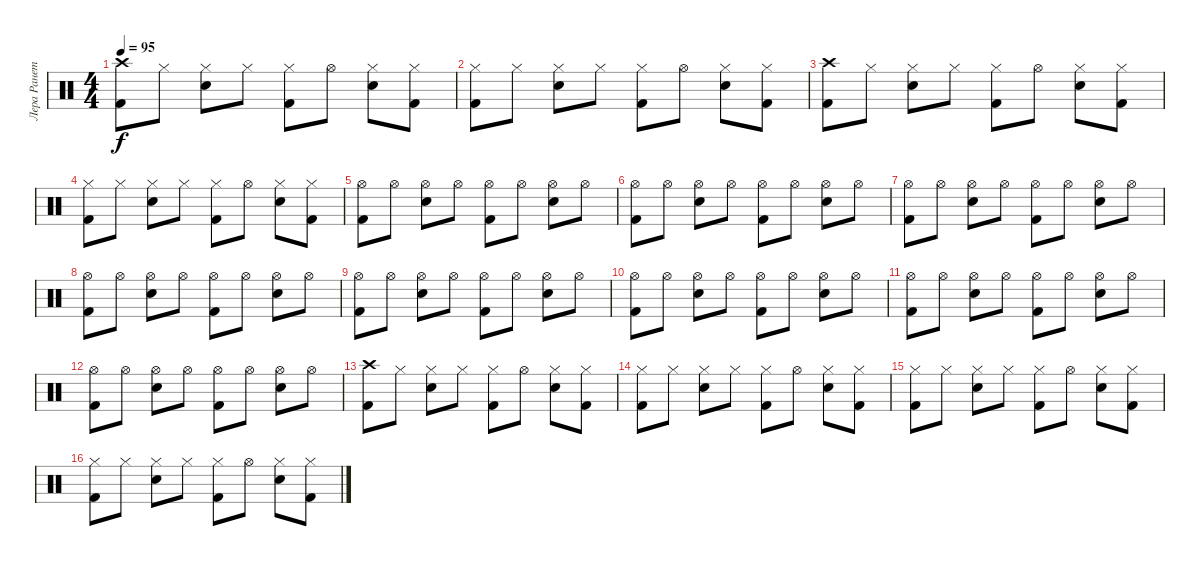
\track ("Лера Ранетка" "Лера Ранет") {instrument percussion}
\staff {score}
\articulation defaults
\ts (4 4)
\tempo 95
\clef neutral
\ks c
("Crash high (hit)" "Kick (hit) 2").8{dy f} "Hi-Hat (closed)".8 ("Hi-Hat (closed)" "Electric Snare (hit)").8 "Hi-Hat (closed)".8 ("Hi-Hat (closed)" "Kick (hit) 2").8 "Hi-Hat (open)".8 ("Hi-Hat (closed)" "Electric Snare (hit)").8 ("Hi-Hat (closed)" "Kick (hit) 2").8 |
("Hi-Hat (closed)" "Kick (hit) 2").8 "Hi-Hat (closed)".8 ("Hi-Hat (closed)" "Electric Snare (hit)").8 "Hi-Hat (closed)".8 ("Hi-Hat (closed)" "Kick (hit) 2").8 "Hi-Hat (open)".8 ("Hi-Hat (closed)" "Electric Snare (hit)").8 ("Hi-Hat (closed)" "Kick (hit) 2").8 |
("Crash high (hit)" "Kick (hit) 2").8 "Hi-Hat (closed)".8 ("Hi-Hat (closed)" "Electric Snare (hit)").8 "Hi-Hat (closed)".8 ("Hi-Hat (closed)" "Kick (hit) 2").8 "Hi-Hat (open)".8 ("Hi-Hat (closed)" "Electric Snare (hit)").8 ("Hi-Hat (closed)" "Kick (hit) 2").8 |
("Hi-Hat (closed)" "Kick (hit) 2").8 "Hi-Hat (closed)".8 ("Hi-Hat (closed)" "Electric Snare (hit)").8 "Hi-Hat (closed)".8 ("Hi-Hat (closed)" "Kick (hit) 2").8 "Hi-Hat (open)".8 ("Hi-Hat (closed)" "Electric Snare (hit)").8 ("Hi-Hat (closed)" "Kick (hit) 2").8 |
("Hi-Hat (open)" "Kick (hit) 2").8 "Hi-Hat (open)".8 ("Hi-Hat (open)" "Electric Snare (hit)").8 "Hi-Hat (open)".8 ("Hi-Hat (open)" "Kick (hit) 2").8 "Hi-Hat (open)".8 ("Hi-Hat (open)" "Electric Snare (hit)").8 "Hi-Hat (open)".8 |
("Hi-Hat (open)" "Kick (hit) 2").8 "Hi-Hat (open)".8 ("Hi-Hat (open)" "Electric Snare (hit)").8 "Hi-Hat (open)".8 ("Hi-Hat (open)" "Kick (hit) 2").8 "Hi-Hat (open)".8 ("Hi-Hat (open)" "Electric Snare (hit)").8 "Hi-Hat (open)".8 |
("Hi-Hat (open)" "Kick (hit) 2").8 "Hi-Hat (open)".8 ("Hi-Hat (open)" "Electric Snare (hit)").8 "Hi-Hat (open)".8 ("Hi-Hat (open)" "Kick (hit) 2").8 "Hi-Hat (open)".8 ("Hi-Hat (open)" "Electric Snare (hit)").8 "Hi-Hat (open)".8 |
("Hi-Hat (open)" "Kick (hit) 2").8 "Hi-Hat (open)".8 ("Hi-Hat (open)" "Electric Snare (hit)").8 "Hi-Hat (open)".8 ("Hi-Hat (open)" "Kick (hit) 2").8 "Hi-Hat (open)".8 ("Hi-Hat (open)" "Electric Snare (hit)").8 "Hi-Hat (open)".8 |
("Hi-Hat (open)" "Kick (hit) 2").8 "Hi-Hat (open)".8 ("Hi-Hat (open)" "Electric Snare (hit)").8 "Hi-Hat (open)".8 ("Hi-Hat (open)" "Kick (hit) 2").8 "Hi-Hat (open)".8 ("Hi-Hat (open)" "Electric Snare (hit)").8 "Hi-Hat (open)".8 |
("Hi-Hat (open)" "Kick (hit) 2").8 "Hi-Hat (open)".8 ("Hi-Hat (open)" "Electric Snare (hit)").8 "Hi-Hat (open)".8 ("Hi-Hat (open)" "Kick (hit) 2").8 "Hi-Hat (open)".8 ("Hi-Hat (open)" "Electric Snare (hit)").8 "Hi-Hat (open)".8 |
("Hi-Hat (open)" "Kick (hit) 2").8 "Hi-Hat (open)".8 ("Hi-Hat (open)" "Electric Snare (hit)").8 "Hi-Hat (open)".8 ("Hi-Hat (open)" "Kick (hit) 2").8 "Hi-Hat (open)".8 ("Hi-Hat (open)" "Electric Snare (hit)").8 "Hi-Hat (open)".8 |
("Hi-Hat (open)" "Kick (hit) 2").8 "Hi-Hat (open)".8 ("Hi-Hat (open)" "Electric Snare (hit)").8 "Hi-Hat (open)".8 ("Hi-Hat (open)" "Kick (hit) 2").8 "Hi-Hat (open)".8 ("Hi-Hat (open)" "Electric Snare (hit)").8 "Hi-Hat (open)".8 |
("Crash high (hit)" "Kick (hit) 2").8 "Hi-Hat (closed)".8 ("Hi-Hat (closed)" "Electric Snare (hit)").8 "Hi-Hat (closed)".8 ("Hi-Hat (closed)" "Kick (hit) 2").8 "Hi-Hat (open)".8 ("Hi-Hat (closed)" "Electric Snare (hit)").8 ("Hi-Hat (closed)" "Kick (hit) 2").8 |
("Hi-Hat (closed)" "Kick (hit) 2").8 "Hi-Hat (closed)".8 ("Hi-Hat (closed)" "Electric Snare (hit)").8 "Hi-Hat (closed)".8 ("Hi-Hat (closed)" "Kick (hit) 2").8 "Hi-Hat (open)".8 ("Hi-Hat (closed)" "Electric Snare (hit)").8 ("Hi-Hat (closed)" "Kick (hit) 2").8 |
("Hi-Hat (closed)" "Kick (hit) 2").8 "Hi-Hat (closed)".8 ("Hi-Hat (closed)" "Electric Snare (hit)").8 "Hi-Hat (closed)".8 ("Hi-Hat (closed)" "Kick (hit) 2").8 "Hi-Hat (open)".8 ("Hi-Hat (closed)" "Electric Snare (hit)").8 ("Hi-Hat (closed)" "Kick (hit) 2").8 |
("Hi-Hat (closed)" "Kick (hit) 2").8 "Hi-Hat (closed)".8 ("Hi-Hat (closed)" "Electric Snare (hit)").8 "Hi-Hat (closed)".8 ("Hi-Hat (closed)" "Kick (hit) 2").8 "Hi-Hat (open)".8 ("Hi-Hat (closed)" "Electric Snare (hit)").8 ("Hi-Hat (closed)" "Kick (hit) 2").8
